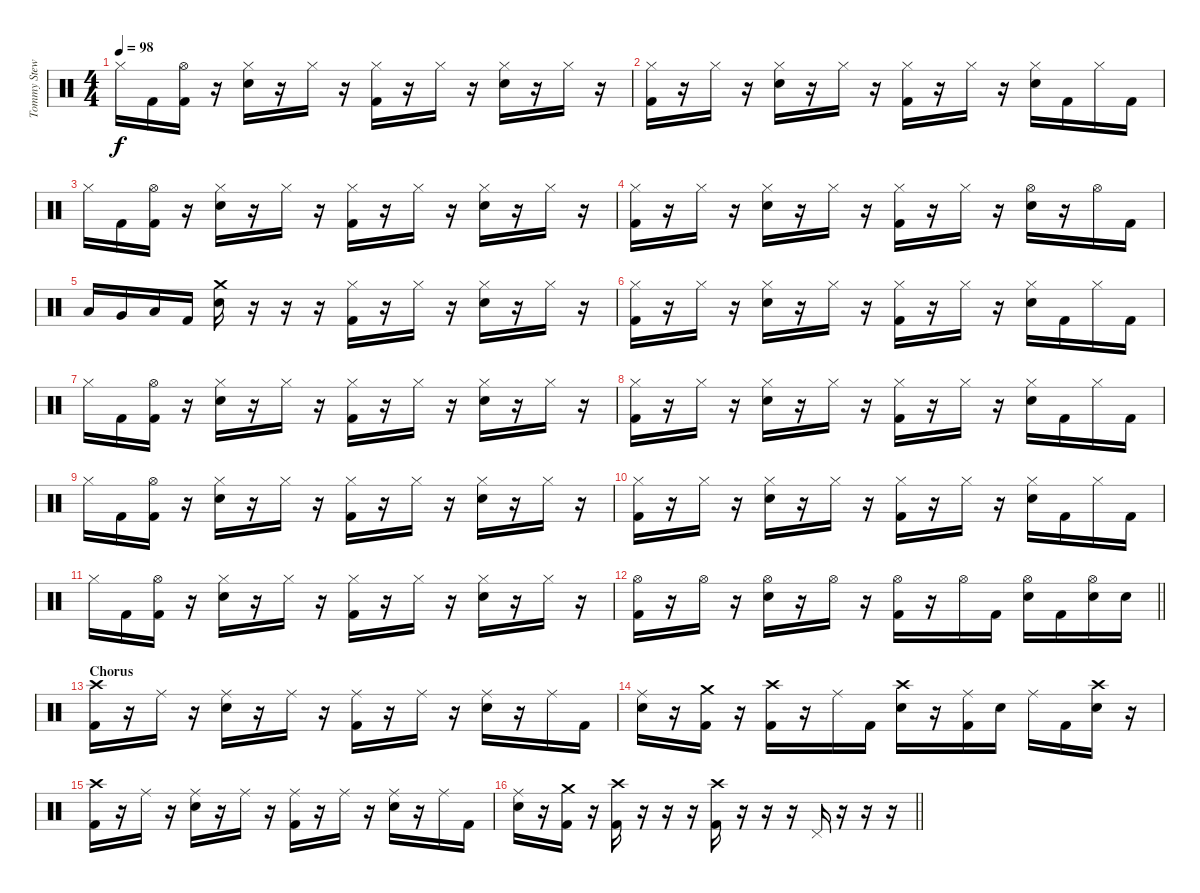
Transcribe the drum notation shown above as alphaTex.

\track ("Tommy Stewart - Drums" "Tommy Stew") {instrument percussion}
\staff {score}
\articulation defaults
\ts (4 4)
\tempo 98
\clef neutral
\ks c "Hi-Hat (closed)".16{dy f} "Kick (hit) 2".16
("Hi-Hat (open)" "Kick (hit) 2").16 r.16 ("Hi-Hat (closed)" "Snare (hit) 2").16 r.16 "Hi-Hat (closed)".16 r.16 ("Hi-Hat (closed)" "Kick (hit) 2").16 r.16 "Hi-Hat (closed)".16 r.16 ("Hi-Hat (closed)" "Snare (hit) 2").16 r.16 "Hi-Hat (closed)".16 r.16 |
("Hi-Hat (closed)" "Kick (hit) 2").16 r.16 "Hi-Hat (closed)".16 r.16 ("Hi-Hat (closed)" "Snare (hit) 2").16 r.16 "Hi-Hat (closed)".16 r.16 ("Hi-Hat (closed)" "Kick (hit) 2").16 r.16 "Hi-Hat (closed)".16 r.16 ("Hi-Hat (closed)" "Snare (hit) 2").16 "Kick (hit) 2".16 "Hi-Hat (closed)".16 "Kick (hit) 2".16 |
"Hi-Hat (closed)".16 "Kick (hit) 2".16 ("Hi-Hat (open)" "Kick (hit) 2").16 r.16 ("Hi-Hat (closed)" "Snare (hit) 2").16 r.16 "Hi-Hat (closed)".16 r.16 ("Hi-Hat (closed)" "Kick (hit) 2").16 r.16 "Hi-Hat (closed)".16 r.16 ("Hi-Hat (closed)" "Snare (hit) 2").16 r.16 "Hi-Hat (closed)".16 r.16 |
("Hi-Hat (closed)" "Kick (hit) 2").16 r.16 "Hi-Hat (closed)".16 r.16 ("Hi-Hat (closed)" "Snare (hit) 2").16 r.16 "Hi-Hat (closed)".16 r.16 ("Hi-Hat (closed)" "Kick (hit) 2").16 r.16 "Hi-Hat (closed)".16 r.16 ("Hi-Hat (open)" "Snare (hit) 2").16 r.16 "Hi-Hat (open)".16 "Kick (hit) 2".16 |
"Low Tom (hit)".16 "Very Low Tom (hit)".16 "Low Floor Tom (hit)".16 "Kick (hit) 2".16 ("Crash medium (hit)" "Snare (hit) 2").16 r.16 r.16 r.16 ("Hi-Hat (closed)" "Kick (hit) 2").16 r.16 "Hi-Hat (closed)".16 r.16 ("Hi-Hat (closed)" "Snare (hit) 2").16 r.16 "Hi-Hat (closed)".16 r.16 |
("Hi-Hat (closed)" "Kick (hit) 2").16 r.16 "Hi-Hat (closed)".16 r.16 ("Hi-Hat (closed)" "Snare (hit) 2").16 r.16 "Hi-Hat (closed)".16 r.16 ("Hi-Hat (closed)" "Kick (hit) 2").16 r.16 "Hi-Hat (closed)".16 r.16 ("Hi-Hat (closed)" "Snare (hit) 2").16 "Kick (hit) 2".16 "Hi-Hat (closed)".16 "Kick (hit) 2".16 |
"Hi-Hat (closed)".16 "Kick (hit) 2".16 ("Hi-Hat (open)" "Kick (hit) 2").16 r.16 ("Hi-Hat (closed)" "Snare (hit) 2").16 r.16 "Hi-Hat (closed)".16 r.16 ("Hi-Hat (closed)" "Kick (hit) 2").16 r.16 "Hi-Hat (closed)".16 r.16 ("Hi-Hat (closed)" "Snare (hit) 2").16 r.16 "Hi-Hat (closed)".16 r.16 |
("Hi-Hat (closed)" "Kick (hit) 2").16 r.16 "Hi-Hat (closed)".16 r.16 ("Hi-Hat (closed)" "Snare (hit) 2").16 r.16 "Hi-Hat (closed)".16 r.16 ("Hi-Hat (closed)" "Kick (hit) 2").16 r.16 "Hi-Hat (closed)".16 r.16 ("Hi-Hat (closed)" "Snare (hit) 2").16 "Kick (hit) 2".16 "Hi-Hat (closed)".16 "Kick (hit) 2".16 |
"Hi-Hat (closed)".16 "Kick (hit) 2".16 ("Hi-Hat (open)" "Kick (hit) 2").16 r.16 ("Hi-Hat (closed)" "Snare (hit) 2").16 r.16 "Hi-Hat (closed)".16 r.16 ("Hi-Hat (closed)" "Kick (hit) 2").16 r.16 "Hi-Hat (closed)".16 r.16 ("Hi-Hat (closed)" "Snare (hit) 2").16 r.16 "Hi-Hat (closed)".16 r.16 |
("Hi-Hat (closed)" "Kick (hit) 2").16 r.16 "Hi-Hat (closed)".16 r.16 ("Hi-Hat (closed)" "Snare (hit) 2").16 r.16 "Hi-Hat (closed)".16 r.16 ("Hi-Hat (closed)" "Kick (hit) 2").16 r.16 "Hi-Hat (closed)".16 r.16 ("Hi-Hat (closed)" "Snare (hit) 2").16 "Kick (hit) 2".16 "Hi-Hat (closed)".16 "Kick (hit) 2".16 |
"Hi-Hat (closed)".16 "Kick (hit) 2".16 ("Hi-Hat (open)" "Kick (hit) 2").16 r.16 ("Hi-Hat (closed)" "Snare (hit) 2").16 r.16 "Hi-Hat (closed)".16 r.16 ("Hi-Hat (closed)" "Kick (hit) 2").16 r.16 "Hi-Hat (closed)".16 r.16 ("Hi-Hat (closed)" "Snare (hit) 2").16 r.16 "Hi-Hat (closed)".16 r.16 |
\barLineRight lightlight
("Hi-Hat (open)" "Kick (hit) 2").16 r.16 "Hi-Hat (open)".16 r.16 ("Hi-Hat (open)" "Snare (hit) 2").16 r.16 "Hi-Hat (open)".16 r.16 ("Hi-Hat (open)" "Kick (hit) 2").16 r.16 "Hi-Hat (open)".16 "Kick (hit) 2".16 ("Hi-Hat (open)" "Snare (hit) 2").16 "Kick (hit) 2".16 ("Hi-Hat (open)" "Snare (hit) 2").16 "Snare (hit) 2".16 |
\section ("" "Chorus")
("Crash high (hit)" "Kick (hit) 2").16 r.16 "Ride (middle)".16 r.16 ("Ride (middle)" "Snare (hit) 2").16 r.16 "Ride (middle)".16 r.16 ("Ride (middle)" "Kick (hit) 2").16 r.16 "Ride (middle)".16 r.16 ("Ride (middle)" "Snare (hit) 2").16 r.16 "Ride (middle)".16 "Kick (hit) 2".16 |
("Ride (middle)" "Snare (hit) 2").16 r.16 ("Crash medium (hit)" "Kick (hit) 2").16 r.16 ("Crash high (hit)" "Kick (hit) 2").16 r.16 "Ride (middle)".16 "Kick (hit) 2".16 ("Crash high (hit)" "Snare (hit) 2").16 r.16 ("Ride (middle)" "Kick (hit) 2").16 "Snare (hit) 2".16 "Ride (middle)".16 "Kick (hit) 2".16 ("Crash high (hit)" "Snare (hit) 2").16 r.16 |
("Crash high (hit)" "Kick (hit) 2").16 r.16 "Ride (middle)".16 r.16 ("Ride (middle)" "Snare (hit) 2").16 r.16 "Ride (middle)".16 r.16 ("Ride (middle)" "Kick (hit) 2").16 r.16 "Ride (middle)".16 r.16 ("Ride (middle)" "Snare (hit) 2").16 r.16 "Ride (middle)".16 "Kick (hit) 2".16 |
\barLineRight lightlight
("Ride (middle)" "Snare (hit) 2").16 r.16 ("Crash medium (hit)" "Kick (hit) 2").16 r.16 ("Crash high (hit)" "Kick (hit) 2").16 r.16 r.16 r.16 ("Crash high (hit)" "Kick (hit) 2").16 r.16 r.16 r.16 "Pedal Hi-Hat (hit)".16 r.16 r.16 r.16
